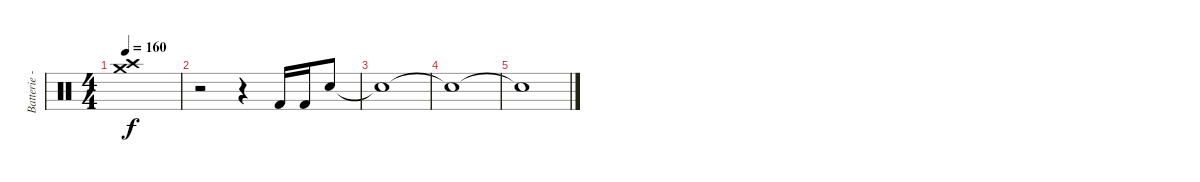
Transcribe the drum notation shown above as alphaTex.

\track ("Batterie - Mikko" "Batterie -") {instrument percussion}
\staff {score}
\articulation defaults
\ts (4 4)
\tempo 160
\clef neutral
\ks c
("Crash medium (hit)" "Crash high (hit)").1{dy f} |
r.2 r.4 "Kick (hit) 2".16 "Kick (hit) 2".16 "Snare (hit) 2".8 |
"Snare (hit)"{t}.1 |
"Snare (hit)"{t}.1 |
"Snare (hit)"{t}.1
